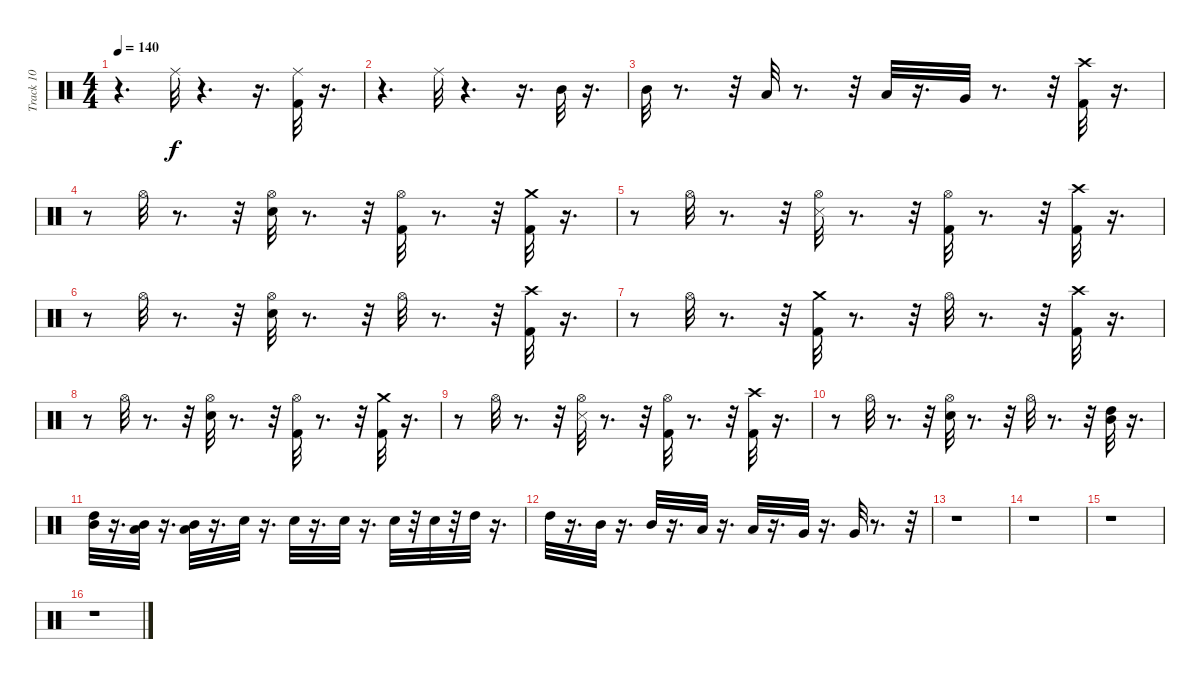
\track ("Track 10" "Track 10") {instrument percussion}
\staff {score}
\articulation defaults
\ts (4 4)
\tempo 140
\clef neutral
\ks c
r.4{d dy f} "Ride (middle)".32 r.4{d} r.16{d} ("Kick (hit) 2" "Ride (middle)").32 r.16{d} |
r.4{d} "Ride (middle)".32 r.4{d} r.16{d} "Mid Tom (hit)".32 r.16{d} |
"Mid Tom (hit)".32 r.8{d} r.32 "Low Tom (hit)".32 r.8{d} r.32 "Low Tom (hit)".32 r.16{d} "Very Low Tom (hit)".32 r.8{d} r.32 ("Kick (hit) 2" "Crash high (hit)").32 r.16{d} |
r.8 "Hi-Hat (open)".32 r.8{d} r.32 ("Electric Snare (hit)" "Hi-Hat (open)").32 r.8{d} r.32 ("Kick (hit) 2" "Hi-Hat (open)").32 r.8{d} r.32 ("Crash medium (hit)" "Kick (hit) 2").32 r.16{d} |
r.8 "Hi-Hat (open)".32 r.8{d} r.32 ("Snare (side stick) 3" "Hi-Hat (open)").32 r.8{d} r.32 ("Kick (hit) 2" "Hi-Hat (open)").32 r.8{d} r.32 ("Kick (hit) 2" "Crash high (hit)").32 r.16{d} |
r.8 "Hi-Hat (open)".32 r.8{d} r.32 ("Electric Snare (hit)" "Hi-Hat (open)").32 r.8{d} r.32 "Hi-Hat (open)".32 r.8{d} r.32 ("Kick (hit) 2" "Crash high (hit)").32 r.16{d} |
r.8 "Hi-Hat (open)".32 r.8{d} r.32 ("Kick (hit) 2" "Crash medium (hit)").32 r.8{d} r.32 "Hi-Hat (open)".32 r.8{d} r.32 ("Kick (hit) 2" "Crash high (hit)").32 r.16{d} |
r.8 "Hi-Hat (open)".32 r.8{d} r.32 ("Electric Snare (hit)" "Hi-Hat (open)").32 r.8{d} r.32 ("Hi-Hat (open)" "Kick (hit) 2").32 r.8{d} r.32 ("Kick (hit) 2" "Crash medium (hit)").32 r.16{d} |
r.8 "Hi-Hat (open)".32 r.8{d} r.32 ("Snare (side stick) 3" "Hi-Hat (open)").32 r.8{d} r.32 ("Kick (hit) 2" "Hi-Hat (open)").32 r.8{d} r.32 ("Kick (hit) 2" "Crash high (hit)").32 r.16{d} |
r.8 "Hi-Hat (open)".32 r.8{d} r.32 ("Electric Snare (hit)" "Hi-Hat (open)").32 r.8{d} r.32 "Hi-Hat (open)".32 r.8{d} r.32 ("High Tom (hit)" "Mid Tom (hit)").32 r.16{d} |
("High Tom (hit)" "Mid Tom (hit)").32 r.16{d} ("Low Tom (hit)" "Mid Tom (hit)").32 r.16{d} ("Mid Tom (hit)" "Low Tom (hit)").32 r.16{d} "Electric Snare (hit)".32 r.16{d} "Electric Snare (hit)".32 r.16{d} "Electric Snare (hit)".32 r.16{d} "Electric Snare (hit)".32 r.32 "Electric Snare (hit)".32 r.32 "High Tom (hit)".32 r.16{d} |
"High Tom (hit)".32 r.16{d} "Mid Tom (hit)".32 r.16{d} "Mid Tom (hit)".32 r.16{d} "Low Tom (hit)".32 r.16{d} "Low Tom (hit)".32 r.16{d} "Very Low Tom (hit)".32 r.16{d} "Very Low Tom (hit)".32 r.8{d} r.32 |
r.1 |
r.1 |
r.1 |
r.1
